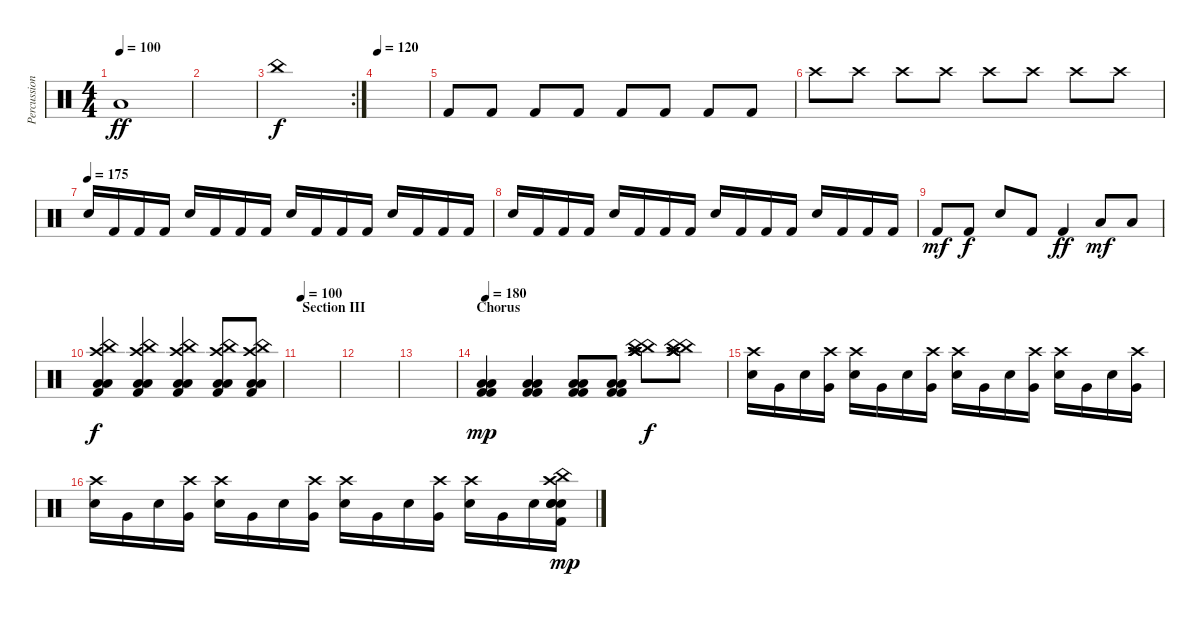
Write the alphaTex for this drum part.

\track ("Percussions" "Percussion") {instrument percussion}
\staff {score}
\articulation defaults
\ts (4 4)
\tempo 100
\clef neutral
\ks c "Low Tom (hit)".1{dy ff}
|
|
\rc 2 "China (hit)".1{dy f}
|
\tempo 120
|
"Kick (hit) 2".8 "Kick (hit) 2".8 "Kick (hit) 2".8 "Kick (hit) 2".8 "Kick (hit) 2".8 "Kick (hit) 2".8 "Kick (hit) 2".8 "Kick (hit) 2".8 |
"Crash high (hit)".8 "Crash high (hit)".8 "Crash high (hit)".8 "Crash high (hit)".8 "Crash high (hit)".8 "Crash high (hit)".8 "Crash high (hit)".8 "Crash high (hit)".8 |
\tempo (175)
"Electric Snare (hit)".16 "Kick (hit) 2".16 "Kick (hit) 2".16 "Kick (hit) 2".16 "Electric Snare (hit)".16 "Kick (hit) 2".16 "Kick (hit) 2".16 "Kick (hit) 2".16 "Electric Snare (hit)".16 "Kick (hit) 2".16 "Kick (hit) 2".16 "Kick (hit) 2".16 "Electric Snare (hit)".16 "Kick (hit) 2".16 "Kick (hit) 2".16 "Kick (hit) 2".16 |
"Electric Snare (hit)".16 "Kick (hit) 2".16 "Kick (hit) 2".16 "Kick (hit) 2".16 "Electric Snare (hit)".16 "Kick (hit) 2".16 "Kick (hit) 2".16 "Kick (hit) 2".16 "Electric Snare (hit)".16 "Kick (hit) 2".16 "Kick (hit) 2".16 "Kick (hit) 2".16 "Electric Snare (hit)".16 "Kick (hit) 2".16 "Kick (hit) 2".16 "Kick (hit) 2".16 |
"Kick (hit) 2".8{dy mf} "Kick (hit) 2".8{dy f} "Electric Snare (hit)".8 "Kick (hit) 2".8 "Kick (hit) 2".4{dy ff} "Low Floor Tom (hit)".8{dy mf} "Low Floor Tom (hit)".8 |
("China (hit)" "Crash high (hit)" "Low Tom (hit)" "Low Floor Tom (hit)" "Kick (hit) 2").4{dy f} ("China (hit)" "Crash high (hit)" "Low Tom (hit)" "Low Floor Tom (hit)" "Kick (hit) 2").4 ("China (hit)" "Crash high (hit)" "Low Tom (hit)" "Low Floor Tom (hit)" "Kick (hit) 2").4 ("China (hit)" "Crash high (hit)" "Low Tom (hit)" "Low Floor Tom (hit)" "Kick (hit) 2").8 ("China (hit)" "Crash high (hit)" "Low Tom (hit)" "Low Floor Tom (hit)" "Kick (hit) 2").8 |
\section ("" "Section III")
\tempo 120
\tempo 100
|
|
|
\section ("" "Chorus")
\tempo 180
("Low Tom (hit)" "Low Floor Tom (hit)" "Kick (hit) 2" "Kick (hit) 2").4{dy mp} ("Low Tom (hit)" "Low Floor Tom (hit)" "Kick (hit) 2" "Kick (hit) 2").4 ("Low Tom (hit)" "Low Floor Tom (hit)" "Kick (hit) 2" "Kick (hit) 2").8 ("Low Tom (hit)" "Low Floor Tom (hit)" "Kick (hit) 2" "Kick (hit) 2").8 ("Crash high (hit)" "Crash high (hit)" "Crash high (hit)" "China (hit)" "China (hit)").8{dy f} ("Crash high (hit)" "Crash high (hit)" "Crash high (hit)" "China (hit)" "China (hit)").8 |
("Electric Snare (hit)" "Crash high (hit)").16 "Very Low Tom (hit)".16 "Electric Snare (hit)".16 ("Very Low Tom (hit)" "Crash high (hit)").16 ("Electric Snare (hit)" "Crash high (hit)").16 "Very Low Tom (hit)".16 "Electric Snare (hit)".16 ("Very Low Tom (hit)" "Crash high (hit)").16 ("Electric Snare (hit)" "Crash high (hit)").16 "Very Low Tom (hit)".16 "Electric Snare (hit)".16 ("Very Low Tom (hit)" "Crash high (hit)").16 ("Electric Snare (hit)" "Crash high (hit)").16 "Very Low Tom (hit)".16 "Electric Snare (hit)".16 ("Very Low Tom (hit)" "Crash high (hit)").16{bd 240} |
("Electric Snare (hit)" "Crash high (hit)").16 "Very Low Tom (hit)".16 "Electric Snare (hit)".16 ("Very Low Tom (hit)" "Crash high (hit)").16 ("Electric Snare (hit)" "Crash high (hit)").16 "Very Low Tom (hit)".16 "Electric Snare (hit)".16 ("Very Low Tom (hit)" "Crash high (hit)").16 ("Electric Snare (hit)" "Crash high (hit)").16 "Very Low Tom (hit)".16 "Electric Snare (hit)".16 ("Very Low Tom (hit)" "Crash high (hit)").16 ("Electric Snare (hit)" "Crash high (hit)").16 "Very Low Tom (hit)".16 "Electric Snare (hit)".16 ("China (hit)" "Crash high (hit)" "Electric Snare (hit)" "Electric Snare (hit)" "Electric Snare (hit)" "Kick (hit) 2").16{bd 240 dy mp}
